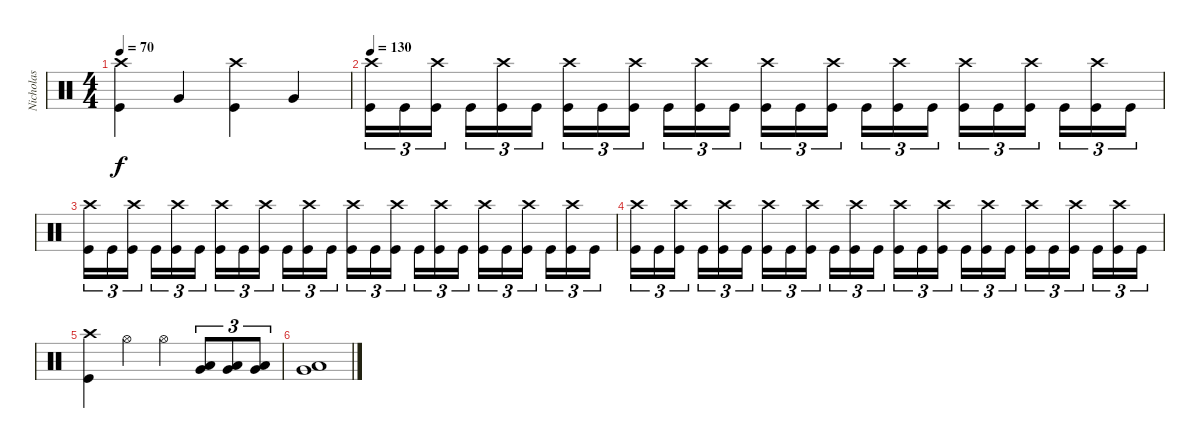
\track ("Nicholas" "Nicholas") {instrument percussion}
\staff {score}
\articulation defaults
\ts (4 4)
\tempo 70
\clef neutral
\ks c
("Crash high (hit)" "Kick (hit)").4{dy f} "Very Low Tom (hit)".4 ("Crash high (hit)" "Kick (hit)").4 "Very Low Tom (hit)".4 |
\tempo 130
("Crash high (hit)" "Kick (hit)").16{tu (3 2)} "Kick (hit)".16{tu (3 2)} ("Crash high (hit)" "Kick (hit)").16{tu (3 2)} "Kick (hit)".16{tu (3 2)} ("Crash high (hit)" "Kick (hit)").16{tu (3 2)} "Kick (hit)".16{tu (3 2)} ("Crash high (hit)" "Kick (hit)").16{tu (3 2)} "Kick (hit)".16{tu (3 2)} ("Crash high (hit)" "Kick (hit)").16{tu (3 2)} "Kick (hit)".16{tu (3 2)} ("Crash high (hit)" "Kick (hit)").16{tu (3 2)} "Kick (hit)".16{tu (3 2)} ("Crash high (hit)" "Kick (hit)").16{tu (3 2)} "Kick (hit)".16{tu (3 2)} ("Crash high (hit)" "Kick (hit)").16{tu (3 2)} "Kick (hit)".16{tu (3 2)} ("Crash high (hit)" "Kick (hit)").16{tu (3 2)} "Kick (hit)".16{tu (3 2)} ("Crash high (hit)" "Kick (hit)").16{tu (3 2)} "Kick (hit)".16{tu (3 2)} ("Crash high (hit)" "Kick (hit)").16{tu (3 2)} "Kick (hit)".16{tu (3 2)} ("Crash high (hit)" "Kick (hit)").16{tu (3 2)} "Kick (hit)".16{tu (3 2)} |
("Crash high (hit)" "Kick (hit)").16{tu (3 2)} "Kick (hit)".16{tu (3 2)} ("Crash high (hit)" "Kick (hit)").16{tu (3 2)} "Kick (hit)".16{tu (3 2)} ("Crash high (hit)" "Kick (hit)").16{tu (3 2)} "Kick (hit)".16{tu (3 2)} ("Crash high (hit)" "Kick (hit)").16{tu (3 2)} "Kick (hit)".16{tu (3 2)} ("Crash high (hit)" "Kick (hit)").16{tu (3 2)} "Kick (hit)".16{tu (3 2)} ("Crash high (hit)" "Kick (hit)").16{tu (3 2)} "Kick (hit)".16{tu (3 2)} ("Crash high (hit)" "Kick (hit)").16{tu (3 2)} "Kick (hit)".16{tu (3 2)} ("Crash high (hit)" "Kick (hit)").16{tu (3 2)} "Kick (hit)".16{tu (3 2)} ("Crash high (hit)" "Kick (hit)").16{tu (3 2)} "Kick (hit)".16{tu (3 2)} ("Crash high (hit)" "Kick (hit)").16{tu (3 2)} "Kick (hit)".16{tu (3 2)} ("Crash high (hit)" "Kick (hit)").16{tu (3 2)} "Kick (hit)".16{tu (3 2)} ("Crash high (hit)" "Kick (hit)").16{tu (3 2)} "Kick (hit)".16{tu (3 2)} |
("Crash high (hit)" "Kick (hit)").16{tu (3 2)} "Kick (hit)".16{tu (3 2)} ("Crash high (hit)" "Kick (hit)").16{tu (3 2)} "Kick (hit)".16{tu (3 2)} ("Crash high (hit)" "Kick (hit)").16{tu (3 2)} "Kick (hit)".16{tu (3 2)} ("Crash high (hit)" "Kick (hit)").16{tu (3 2)} "Kick (hit)".16{tu (3 2)} ("Crash high (hit)" "Kick (hit)").16{tu (3 2)} "Kick (hit)".16{tu (3 2)} ("Crash high (hit)" "Kick (hit)").16{tu (3 2)} "Kick (hit)".16{tu (3 2)} ("Crash high (hit)" "Kick (hit)").16{tu (3 2)} "Kick (hit)".16{tu (3 2)} ("Crash high (hit)" "Kick (hit)").16{tu (3 2)} "Kick (hit)".16{tu (3 2)} ("Crash high (hit)" "Kick (hit)").16{tu (3 2)} "Kick (hit)".16{tu (3 2)} ("Crash high (hit)" "Kick (hit)").16{tu (3 2)} "Kick (hit)".16{tu (3 2)} ("Crash high (hit)" "Kick (hit)").16{tu (3 2)} "Kick (hit)".16{tu (3 2)} ("Crash high (hit)" "Kick (hit)").16{tu (3 2)} "Kick (hit)".16{tu (3 2)} |
("Crash high (hit)" "Kick (hit)").4 "Hi-Hat (open)".4 "Hi-Hat (open)".4 ("Low Tom (hit)" "Very Low Tom (hit)").8{tu (3 2)} ("Low Tom (hit)" "Very Low Tom (hit)").8{tu (3 2)} ("Low Floor Tom (hit)" "Very Low Tom (hit)").8{tu (3 2)} |
("Low Floor Tom (hit)" "Very Low Tom (hit)").1
